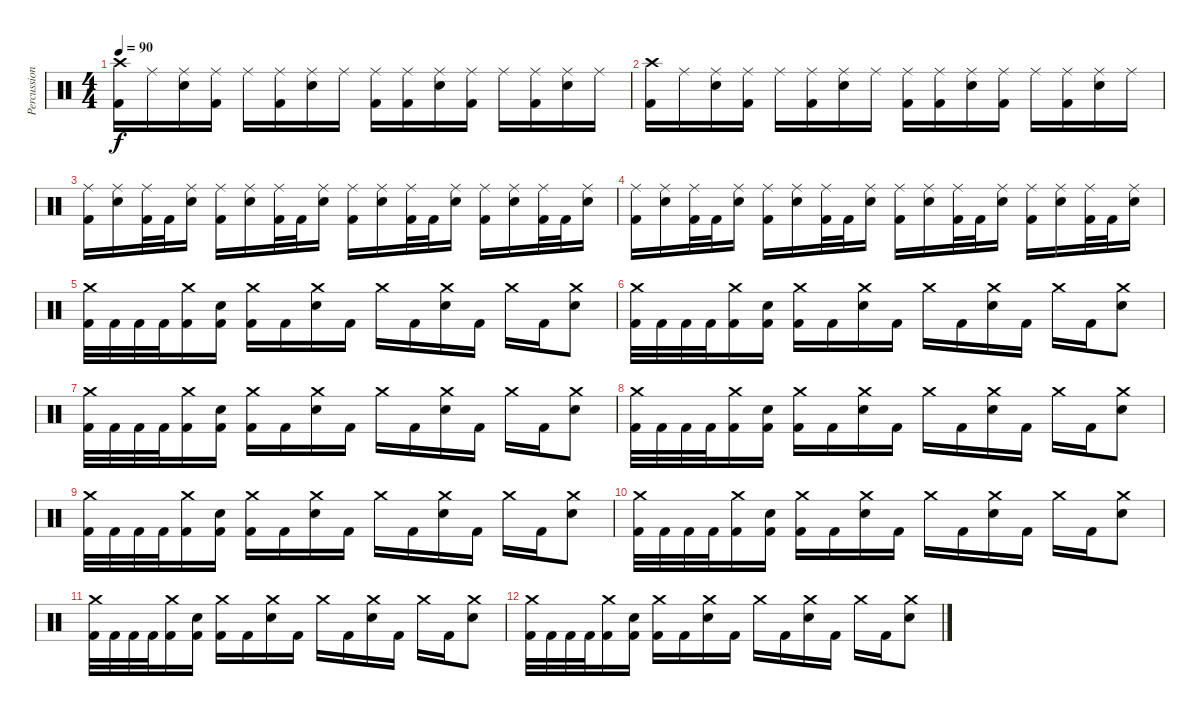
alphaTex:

\track ("Percussion" "Percussion") {instrument percussion}
\staff {score}
\articulation defaults
\ts (4 4)
\tempo 90
\clef neutral
\ks c
("Crash high (hit)" "Kick (hit) 2").16{dy f} "Ride (middle)".16 ("Ride (middle)" "Electric Snare (hit)").16 ("Ride (middle)" "Kick (hit) 2").16 "Ride (middle)".16 ("Ride (middle)" "Kick (hit) 2").16 ("Ride (middle)" "Electric Snare (hit)").16 "Ride (middle)".16 ("Ride (middle)" "Kick (hit) 2").16 ("Ride (middle)" "Kick (hit) 2").16 ("Ride (middle)" "Electric Snare (hit)").16 ("Ride (middle)" "Kick (hit) 2").16 "Ride (middle)".16 ("Ride (middle)" "Kick (hit) 2").16 ("Ride (middle)" "Electric Snare (hit)").16 "Ride (middle)".16 |
("Crash high (hit)" "Kick (hit) 2").16 "Ride (middle)".16 ("Ride (middle)" "Electric Snare (hit)").16 ("Ride (middle)" "Kick (hit) 2").16 "Ride (middle)".16 ("Ride (middle)" "Kick (hit) 2").16 ("Ride (middle)" "Electric Snare (hit)").16 "Ride (middle)".16 ("Ride (middle)" "Kick (hit) 2").16 ("Ride (middle)" "Kick (hit) 2").16 ("Ride (middle)" "Electric Snare (hit)").16 ("Ride (middle)" "Kick (hit) 2").16 "Ride (middle)".16 ("Ride (middle)" "Kick (hit) 2").16 ("Ride (middle)" "Electric Snare (hit)").16 "Ride (middle)".16 |
("Ride (middle)" "Kick (hit) 2").16 ("Ride (middle)" "Electric Snare (hit)").16 ("Ride (middle)" "Kick (hit) 2").32 "Kick (hit) 2".32 ("Ride (middle)" "Electric Snare (hit)").16 ("Ride (middle)" "Kick (hit) 2").16 ("Ride (middle)" "Electric Snare (hit)").16 ("Ride (middle)" "Kick (hit) 2").32 "Kick (hit) 2".32 ("Ride (middle)" "Electric Snare (hit)").16 ("Ride (middle)" "Kick (hit) 2").16 ("Ride (middle)" "Electric Snare (hit)").16 ("Ride (middle)" "Kick (hit) 2").32 "Kick (hit) 2".32 ("Ride (middle)" "Electric Snare (hit)").16 ("Ride (middle)" "Kick (hit) 2").16 ("Ride (middle)" "Electric Snare (hit)").16 ("Ride (middle)" "Kick (hit) 2").32 "Kick (hit) 2".32 ("Ride (middle)" "Electric Snare (hit)").16 |
("Ride (middle)" "Kick (hit) 2").16 ("Ride (middle)" "Electric Snare (hit)").16 ("Ride (middle)" "Kick (hit) 2").32 "Kick (hit) 2".32 ("Ride (middle)" "Electric Snare (hit)").16 ("Ride (middle)" "Kick (hit) 2").16 ("Ride (middle)" "Electric Snare (hit)").16 ("Ride (middle)" "Kick (hit) 2").32 "Kick (hit) 2".32 ("Ride (middle)" "Electric Snare (hit)").16 ("Ride (middle)" "Kick (hit) 2").16 ("Ride (middle)" "Electric Snare (hit)").16 ("Ride (middle)" "Kick (hit) 2").32 "Kick (hit) 2".32 ("Ride (middle)" "Electric Snare (hit)").16 ("Ride (middle)" "Kick (hit) 2").16 ("Ride (middle)" "Electric Snare (hit)").16 ("Ride (middle)" "Kick (hit) 2").32 "Kick (hit) 2".32 ("Ride (middle)" "Electric Snare (hit)").16 |
("Crash medium (hit)" "Kick (hit) 2").32 "Kick (hit) 2".32 "Kick (hit) 2".32 "Kick (hit) 2".32 ("Crash medium (hit)" "Kick (hit) 2").16 ("Electric Snare (hit)" "Kick (hit) 2").16 ("Crash medium (hit)" "Kick (hit) 2").16 "Kick (hit) 2".16 ("Crash medium (hit)" "Electric Snare (hit)").16 "Kick (hit) 2".16 "Crash medium (hit)".16 "Kick (hit) 2".16 ("Crash medium (hit)" "Electric Snare (hit)").16 "Kick (hit) 2".16 "Crash medium (hit)".16 "Kick (hit) 2".16 ("Crash medium (hit)" "Electric Snare (hit)").8 |
("Crash medium (hit)" "Kick (hit) 2").32 "Kick (hit) 2".32 "Kick (hit) 2".32 "Kick (hit) 2".32 ("Crash medium (hit)" "Kick (hit) 2").16 ("Electric Snare (hit)" "Kick (hit) 2").16 ("Crash medium (hit)" "Kick (hit) 2").16 "Kick (hit) 2".16 ("Crash medium (hit)" "Electric Snare (hit)").16 "Kick (hit) 2".16 "Crash medium (hit)".16 "Kick (hit) 2".16 ("Crash medium (hit)" "Electric Snare (hit)").16 "Kick (hit) 2".16 "Crash medium (hit)".16 "Kick (hit) 2".16 ("Crash medium (hit)" "Electric Snare (hit)").8 |
("Crash medium (hit)" "Kick (hit) 2").32 "Kick (hit) 2".32 "Kick (hit) 2".32 "Kick (hit) 2".32 ("Crash medium (hit)" "Kick (hit) 2").16 ("Electric Snare (hit)" "Kick (hit) 2").16 ("Crash medium (hit)" "Kick (hit) 2").16 "Kick (hit) 2".16 ("Crash medium (hit)" "Electric Snare (hit)").16 "Kick (hit) 2".16 "Crash medium (hit)".16 "Kick (hit) 2".16 ("Crash medium (hit)" "Electric Snare (hit)").16 "Kick (hit) 2".16 "Crash medium (hit)".16 "Kick (hit) 2".16 ("Crash medium (hit)" "Electric Snare (hit)").8 |
("Crash medium (hit)" "Kick (hit) 2").32 "Kick (hit) 2".32 "Kick (hit) 2".32 "Kick (hit) 2".32 ("Crash medium (hit)" "Kick (hit) 2").16 ("Electric Snare (hit)" "Kick (hit) 2").16 ("Crash medium (hit)" "Kick (hit) 2").16 "Kick (hit) 2".16 ("Crash medium (hit)" "Electric Snare (hit)").16 "Kick (hit) 2".16 "Crash medium (hit)".16 "Kick (hit) 2".16 ("Crash medium (hit)" "Electric Snare (hit)").16 "Kick (hit) 2".16 "Crash medium (hit)".16 "Kick (hit) 2".16 ("Crash medium (hit)" "Electric Snare (hit)").8 |
("Crash medium (hit)" "Kick (hit) 2").32 "Kick (hit) 2".32 "Kick (hit) 2".32 "Kick (hit) 2".32 ("Crash medium (hit)" "Kick (hit) 2").16 ("Electric Snare (hit)" "Kick (hit) 2").16 ("Crash medium (hit)" "Kick (hit) 2").16 "Kick (hit) 2".16 ("Crash medium (hit)" "Electric Snare (hit)").16 "Kick (hit) 2".16 "Crash medium (hit)".16 "Kick (hit) 2".16 ("Crash medium (hit)" "Electric Snare (hit)").16 "Kick (hit) 2".16 "Crash medium (hit)".16 "Kick (hit) 2".16 ("Crash medium (hit)" "Electric Snare (hit)").8 |
("Crash medium (hit)" "Kick (hit) 2").32 "Kick (hit) 2".32 "Kick (hit) 2".32 "Kick (hit) 2".32 ("Crash medium (hit)" "Kick (hit) 2").16 ("Electric Snare (hit)" "Kick (hit) 2").16 ("Crash medium (hit)" "Kick (hit) 2").16 "Kick (hit) 2".16 ("Crash medium (hit)" "Electric Snare (hit)").16 "Kick (hit) 2".16 "Crash medium (hit)".16 "Kick (hit) 2".16 ("Crash medium (hit)" "Electric Snare (hit)").16 "Kick (hit) 2".16 "Crash medium (hit)".16 "Kick (hit) 2".16 ("Crash medium (hit)" "Electric Snare (hit)").8 |
("Crash medium (hit)" "Kick (hit) 2").32 "Kick (hit) 2".32 "Kick (hit) 2".32 "Kick (hit) 2".32 ("Crash medium (hit)" "Kick (hit) 2").16 ("Electric Snare (hit)" "Kick (hit) 2").16 ("Crash medium (hit)" "Kick (hit) 2").16 "Kick (hit) 2".16 ("Crash medium (hit)" "Electric Snare (hit)").16 "Kick (hit) 2".16 "Crash medium (hit)".16 "Kick (hit) 2".16 ("Crash medium (hit)" "Electric Snare (hit)").16 "Kick (hit) 2".16 "Crash medium (hit)".16 "Kick (hit) 2".16 ("Crash medium (hit)" "Electric Snare (hit)").8 |
("Crash medium (hit)" "Kick (hit) 2").32 "Kick (hit) 2".32 "Kick (hit) 2".32 "Kick (hit) 2".32 ("Crash medium (hit)" "Kick (hit) 2").16 ("Electric Snare (hit)" "Kick (hit) 2").16 ("Crash medium (hit)" "Kick (hit) 2").16 "Kick (hit) 2".16 ("Crash medium (hit)" "Electric Snare (hit)").16 "Kick (hit) 2".16 "Crash medium (hit)".16 "Kick (hit) 2".16 ("Crash medium (hit)" "Electric Snare (hit)").16 "Kick (hit) 2".16 "Crash medium (hit)".16 "Kick (hit) 2".16 ("Crash medium (hit)" "Electric Snare (hit)").8
